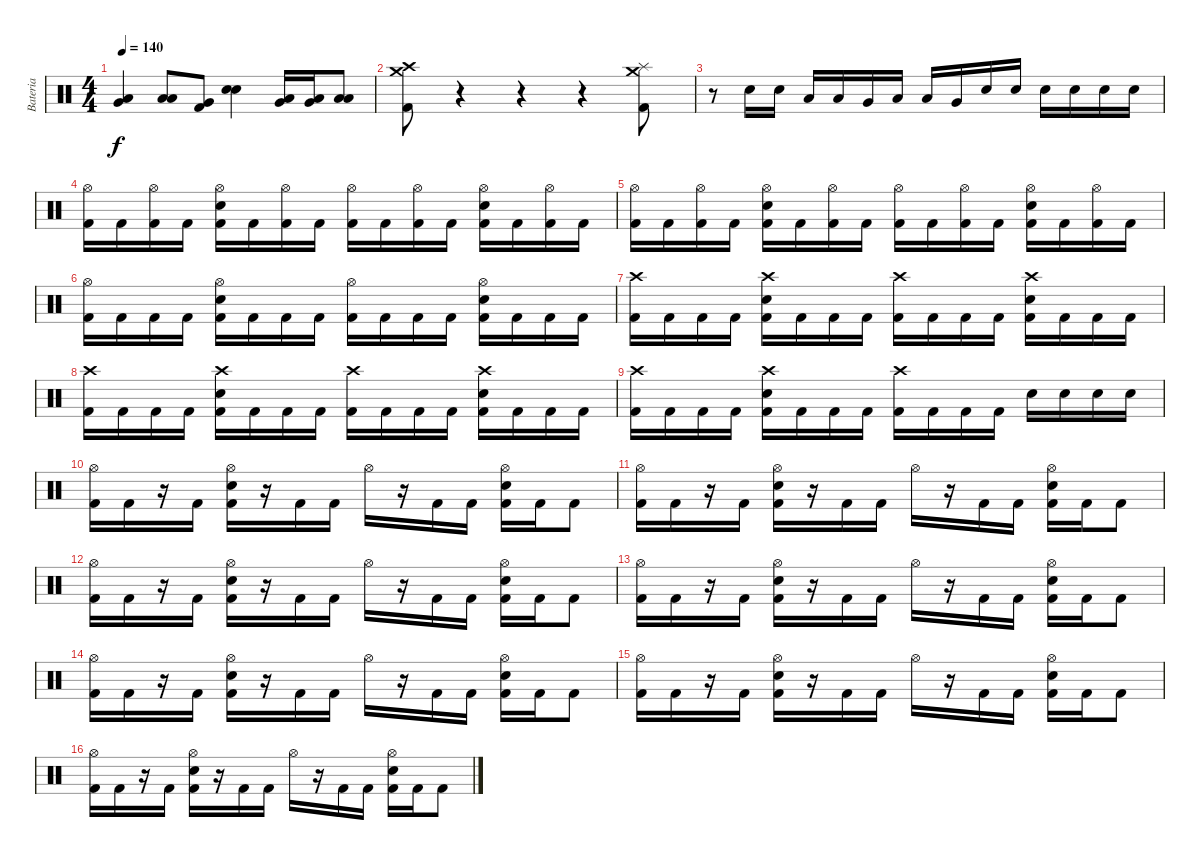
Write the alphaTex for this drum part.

\track ("Bateria" "Bateria") {instrument percussion}
\staff {score}
\articulation defaults
\ts (4 4)
\tempo 140
\clef neutral
\ks c
("Very Low Tom (hit)" "Low Floor Tom (hit)").4{dy f} ("Low Tom (hit)" "Low Tom (hit)").8 ("Kick (hit) 2" "Very Low Tom (hit)").8 ("Electric Snare (hit)" "Electric Snare (hit)").4 ("Low Tom (hit)" "Very Low Tom (hit)").16 ("Low Tom (hit)" "Very Low Tom (hit)").16 ("Low Tom (hit)" "Low Tom (hit)").8 |
("Crash medium (hit)" "Crash high (hit)" "Kick (hit) 2").8 r.4 r.4 r.4 ("Crash medium (hit)" "Splash (hit)" "Kick (hit) 2").8 |
r.8 "Electric Snare (hit)".16 "Electric Snare (hit)".16 "Low Tom (hit)".16 "Low Tom (hit)".16 "Very Low Tom (hit)".16 "Low Floor Tom (hit)".16 "Low Tom (hit)".16 "Very Low Tom (hit)".16 "Electric Snare (hit)".16 "Electric Snare (hit)".16 "Electric Snare (hit)".16 "Electric Snare (hit)".16 "Electric Snare (hit)".16 "Electric Snare (hit)".16 |
("Hi-Hat (open)" "Kick (hit) 2").16 "Kick (hit) 2".16 ("Hi-Hat (open)" "Kick (hit) 2").16 "Kick (hit) 2".16 ("Hi-Hat (open)" "Electric Snare (hit)" "Kick (hit) 2").16 "Kick (hit) 2".16 ("Hi-Hat (open)" "Kick (hit) 2").16 "Kick (hit) 2".16 ("Hi-Hat (open)" "Kick (hit) 2").16 "Kick (hit) 2".16 ("Hi-Hat (open)" "Kick (hit) 2").16 "Kick (hit) 2".16 ("Hi-Hat (open)" "Electric Snare (hit)" "Kick (hit) 2").16 "Kick (hit) 2".16 ("Hi-Hat (open)" "Kick (hit) 2").16 "Kick (hit) 2".16 |
("Hi-Hat (open)" "Kick (hit) 2").16 "Kick (hit) 2".16 ("Hi-Hat (open)" "Kick (hit) 2").16 "Kick (hit) 2".16 ("Hi-Hat (open)" "Electric Snare (hit)" "Kick (hit) 2").16 "Kick (hit) 2".16 ("Hi-Hat (open)" "Kick (hit) 2").16 "Kick (hit) 2".16 ("Hi-Hat (open)" "Kick (hit) 2").16 "Kick (hit) 2".16 ("Hi-Hat (open)" "Kick (hit) 2").16 "Kick (hit) 2".16 ("Hi-Hat (open)" "Electric Snare (hit)" "Kick (hit) 2").16 "Kick (hit) 2".16 ("Hi-Hat (open)" "Kick (hit) 2").16 "Kick (hit) 2".16 |
("Hi-Hat (open)" "Kick (hit) 2").16 "Kick (hit) 2".16 "Kick (hit) 2".16 "Kick (hit) 2".16 ("Hi-Hat (open)" "Electric Snare (hit)" "Kick (hit) 2").16 "Kick (hit) 2".16 "Kick (hit) 2".16 "Kick (hit) 2".16 ("Hi-Hat (open)" "Kick (hit) 2").16 "Kick (hit) 2".16 "Kick (hit) 2".16 "Kick (hit) 2".16 ("Hi-Hat (open)" "Electric Snare (hit)" "Kick (hit) 2").16 "Kick (hit) 2".16 "Kick (hit) 2".16 "Kick (hit) 2".16 |
("Crash high (hit)" "Kick (hit) 2").16 "Kick (hit) 2".16 "Kick (hit) 2".16 "Kick (hit) 2".16 ("Crash high (hit)" "Electric Snare (hit)" "Kick (hit) 2").16 "Kick (hit) 2".16 "Kick (hit) 2".16 "Kick (hit) 2".16 ("Crash high (hit)" "Kick (hit) 2").16 "Kick (hit) 2".16 "Kick (hit) 2".16 "Kick (hit) 2".16 ("Crash high (hit)" "Electric Snare (hit)" "Kick (hit) 2").16 "Kick (hit) 2".16 "Kick (hit) 2".16 "Kick (hit) 2".16 |
("Crash high (hit)" "Kick (hit) 2").16 "Kick (hit) 2".16 "Kick (hit) 2".16 "Kick (hit) 2".16 ("Crash high (hit)" "Electric Snare (hit)" "Kick (hit) 2").16 "Kick (hit) 2".16 "Kick (hit) 2".16 "Kick (hit) 2".16 ("Crash high (hit)" "Kick (hit) 2").16 "Kick (hit) 2".16 "Kick (hit) 2".16 "Kick (hit) 2".16 ("Crash high (hit)" "Electric Snare (hit)" "Kick (hit) 2").16 "Kick (hit) 2".16 "Kick (hit) 2".16 "Kick (hit) 2".16 |
("Crash high (hit)" "Kick (hit) 2").16 "Kick (hit) 2".16 "Kick (hit) 2".16 "Kick (hit) 2".16 ("Crash high (hit)" "Electric Snare (hit)" "Kick (hit) 2").16 "Kick (hit) 2".16 "Kick (hit) 2".16 "Kick (hit) 2".16 ("Crash high (hit)" "Kick (hit) 2").16 "Kick (hit) 2".16 "Kick (hit) 2".16 "Kick (hit) 2".16 "Electric Snare (hit)".16 "Electric Snare (hit)".16 "Electric Snare (hit)".16 "Electric Snare (hit)".16 |
("Hi-Hat (open)" "Kick (hit) 2").16 "Kick (hit) 2".16 r.16 "Kick (hit) 2".16 ("Hi-Hat (open)" "Electric Snare (hit)" "Kick (hit) 2").16 r.16 "Kick (hit) 2".16 "Kick (hit) 2".16 "Hi-Hat (open)".16 r.16 "Kick (hit) 2".16 "Kick (hit) 2".16 ("Hi-Hat (open)" "Electric Snare (hit)" "Kick (hit) 2").16 "Kick (hit) 2".16 "Kick (hit) 2".8 |
("Hi-Hat (open)" "Kick (hit) 2").16 "Kick (hit) 2".16 r.16 "Kick (hit) 2".16 ("Hi-Hat (open)" "Electric Snare (hit)" "Kick (hit) 2").16 r.16 "Kick (hit) 2".16 "Kick (hit) 2".16 "Hi-Hat (open)".16 r.16 "Kick (hit) 2".16 "Kick (hit) 2".16 ("Hi-Hat (open)" "Electric Snare (hit)" "Kick (hit) 2").16 "Kick (hit) 2".16 "Kick (hit) 2".8 |
("Hi-Hat (open)" "Kick (hit) 2").16 "Kick (hit) 2".16 r.16 "Kick (hit) 2".16 ("Hi-Hat (open)" "Electric Snare (hit)" "Kick (hit) 2").16 r.16 "Kick (hit) 2".16 "Kick (hit) 2".16 "Hi-Hat (open)".16 r.16 "Kick (hit) 2".16 "Kick (hit) 2".16 ("Hi-Hat (open)" "Electric Snare (hit)" "Kick (hit) 2").16 "Kick (hit) 2".16 "Kick (hit) 2".8 |
("Hi-Hat (open)" "Kick (hit) 2").16 "Kick (hit) 2".16 r.16 "Kick (hit) 2".16 ("Hi-Hat (open)" "Electric Snare (hit)" "Kick (hit) 2").16 r.16 "Kick (hit) 2".16 "Kick (hit) 2".16 "Hi-Hat (open)".16 r.16 "Kick (hit) 2".16 "Kick (hit) 2".16 ("Hi-Hat (open)" "Electric Snare (hit)" "Kick (hit) 2").16 "Kick (hit) 2".16 "Kick (hit) 2".8 |
("Hi-Hat (open)" "Kick (hit) 2").16 "Kick (hit) 2".16 r.16 "Kick (hit) 2".16 ("Hi-Hat (open)" "Electric Snare (hit)" "Kick (hit) 2").16 r.16 "Kick (hit) 2".16 "Kick (hit) 2".16 "Hi-Hat (open)".16 r.16 "Kick (hit) 2".16 "Kick (hit) 2".16 ("Hi-Hat (open)" "Electric Snare (hit)" "Kick (hit) 2").16 "Kick (hit) 2".16 "Kick (hit) 2".8 |
("Hi-Hat (open)" "Kick (hit) 2").16 "Kick (hit) 2".16 r.16 "Kick (hit) 2".16 ("Hi-Hat (open)" "Electric Snare (hit)" "Kick (hit) 2").16 r.16 "Kick (hit) 2".16 "Kick (hit) 2".16 "Hi-Hat (open)".16 r.16 "Kick (hit) 2".16 "Kick (hit) 2".16 ("Hi-Hat (open)" "Electric Snare (hit)" "Kick (hit) 2").16 "Kick (hit) 2".16 "Kick (hit) 2".8 |
("Hi-Hat (open)" "Kick (hit) 2").16 "Kick (hit) 2".16 r.16 "Kick (hit) 2".16 ("Hi-Hat (open)" "Electric Snare (hit)" "Kick (hit) 2").16 r.16 "Kick (hit) 2".16 "Kick (hit) 2".16 "Hi-Hat (open)".16 r.16 "Kick (hit) 2".16 "Kick (hit) 2".16 ("Hi-Hat (open)" "Electric Snare (hit)" "Kick (hit) 2").16 "Kick (hit) 2".16 "Kick (hit) 2".8
